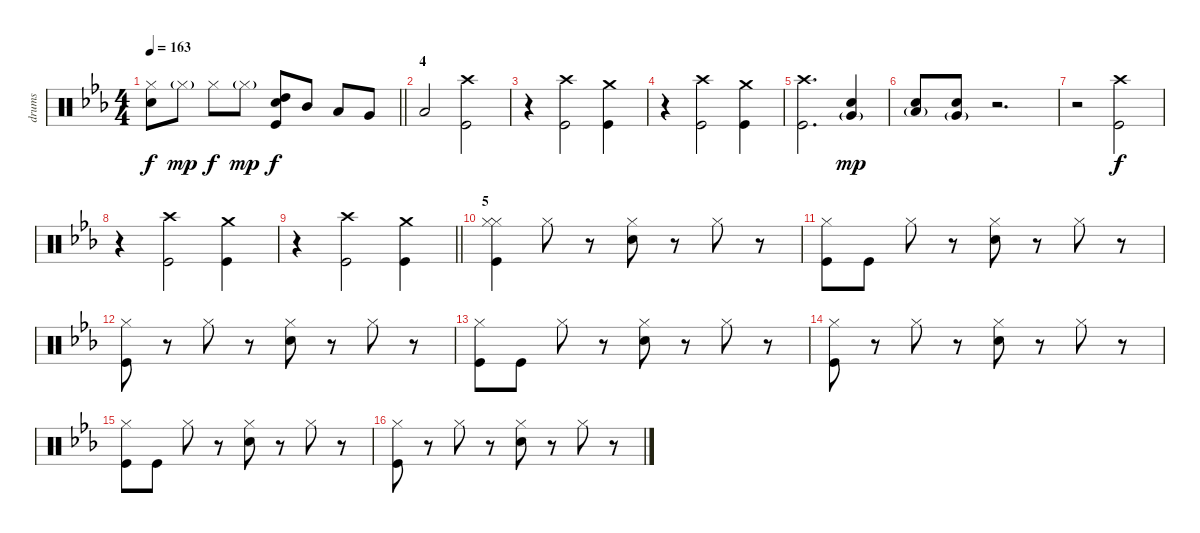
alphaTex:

\track ("drums" "drums") {instrument percussion}
\staff {score}
\articulation defaults
\ts (4 4)
\tempo 163
\clef neutral
\barLineRight lightlight
\ks cminor
("Hi-Hat (closed)" "Snare (hit) 2").8{dy f} "Hi-Hat (closed)"{g}.8{dy mp} "Hi-Hat (closed)".8{dy f} "Hi-Hat (closed)"{g}.8{dy mp} ("High Tom (hit)" "Snare (hit) 2" "Kick (hit)").8{dy f} "Mid Tom (hit)".8 "Low Tom (hit)".8 "Very Low Tom (hit)".8 |
\section ("" "4")
"Low Floor Tom (hit)".2 ("Kick (hit)" "Crash high (hit)").2 |
r.4 ("Crash high (hit)" "Kick (hit)").2 ("Crash medium (hit)" "Kick (hit)").4 |
r.4 ("Kick (hit)" "Crash high (hit)").2 ("Kick (hit)" "Crash medium (hit)").4 |
("Kick (hit)" "Crash high (hit)").2{d} ("Electric Snare (hit)" "Very Low Tom (hit)"{g}).4{dy mp} |
("Electric Snare (hit)" "Low Tom (hit)"{g}).8 ("Electric Snare (hit)" "Very Low Tom (hit)"{g}).8 r.2{d} |
r.2 ("Kick (hit)" "Crash high (hit)").2{dy f} |
r.4 ("Kick (hit)" "Crash high (hit)").2 ("Kick (hit)" "Crash medium (hit)").4 |
\barLineRight lightlight
r.4 ("Kick (hit)" "Crash high (hit)").2 ("Kick (hit)" "Crash medium (hit)").4 |
\section ("" "5")
("Hi-Hat (closed)" "Kick (hit)" "Hi-Hat (closed)").4 "Hi-Hat (closed)".8 r.8 ("Electric Snare (hit)" "Hi-Hat (closed)").8 r.8 "Hi-Hat (closed)".8 r.8 |
("Kick (hit)" "Hi-Hat (closed)").8 "Kick (hit)".8 "Hi-Hat (closed)".8 r.8 ("Electric Snare (hit)" "Hi-Hat (closed)").8 r.8 "Hi-Hat (closed)".8 r.8 |
("Kick (hit)" "Hi-Hat (closed)").8 r.8 "Hi-Hat (closed)".8 r.8 ("Electric Snare (hit)" "Hi-Hat (closed)").8 r.8 "Hi-Hat (closed)".8 r.8 |
("Kick (hit)" "Hi-Hat (closed)").8 "Kick (hit)".8 "Hi-Hat (closed)".8 r.8 ("Electric Snare (hit)" "Hi-Hat (closed)").8 r.8 "Hi-Hat (closed)".8 r.8 |
("Kick (hit)" "Hi-Hat (closed)").8 r.8 "Hi-Hat (closed)".8 r.8 ("Electric Snare (hit)" "Hi-Hat (closed)").8 r.8 "Hi-Hat (closed)".8 r.8 |
("Kick (hit)" "Hi-Hat (closed)").8 "Kick (hit)".8 "Hi-Hat (closed)".8 r.8 ("Electric Snare (hit)" "Hi-Hat (closed)").8 r.8 "Hi-Hat (closed)".8 r.8 |
("Kick (hit)" "Hi-Hat (closed)").8 r.8 "Hi-Hat (closed)".8 r.8 ("Electric Snare (hit)" "Hi-Hat (closed)").8 r.8 "Hi-Hat (closed)".8 r.8
